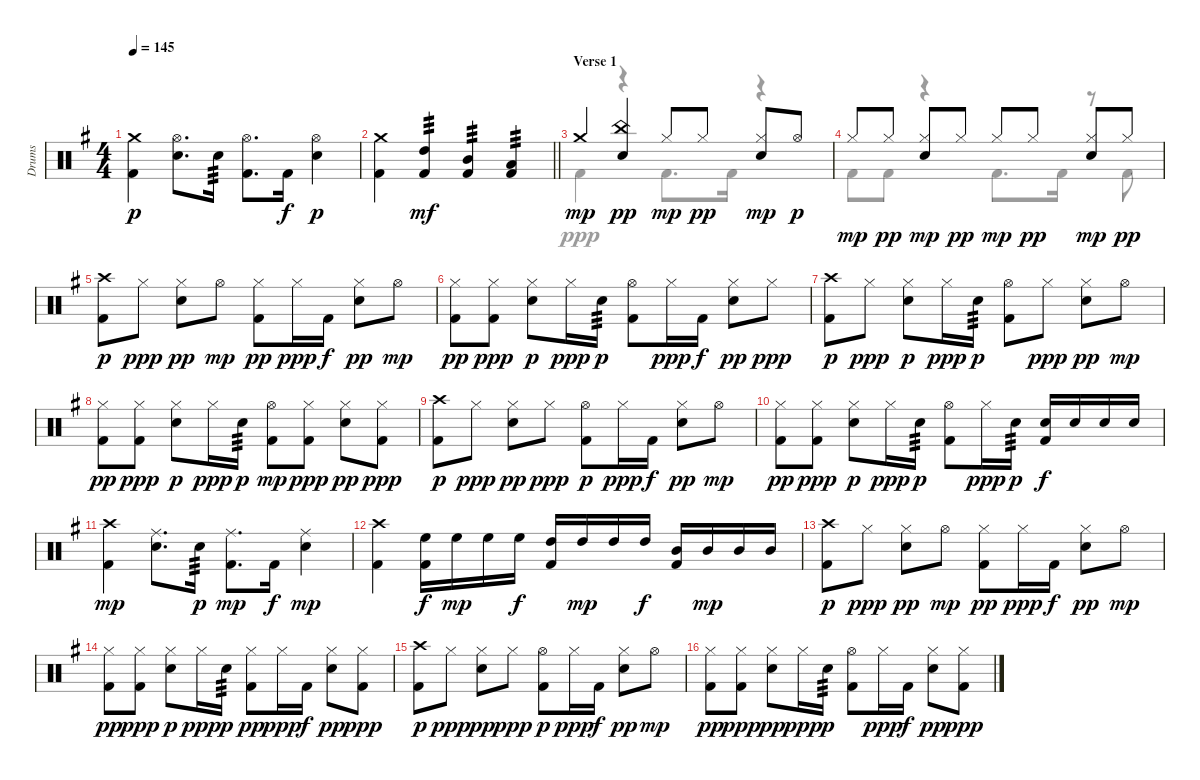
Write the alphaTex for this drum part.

\track ("Drums" "Drums") {instrument percussion}
\staff {score}
\articulation defaults
\voice
\ts (4 4)
\tempo 145
\clef neutral
\ks g
("Crash medium (hit)" "Kick (hit) 2").4{dy p} ("Hi-Hat (open)" "Electric Snare (hit)").8{d} "Electric Snare (hit)".16{tp 3} ("Hi-Hat (open)" "Kick (hit) 2").8{d} "Kick (hit) 2".16{dy f} ("Hi-Hat (open)" "Electric Snare (hit)").4{dy p} |
\barLineRight lightlight
("Crash medium (hit)" "Kick (hit) 2").4 ("High Tom (hit)" "Kick (hit) 2").4{tp 3 dy mf} ("Mid Tom (hit)" "Kick (hit) 2").4{tp 3} ("Low Tom (hit)" "Kick (hit) 2").4{tp 3} |
\section ("" "Verse 1")
"Crash medium (hit)".4{dy mp} ("China (hit)" "Electric Snare (hit)").4{dy pp} "Hi-Hat (closed)".8{dy mp} "Hi-Hat (closed)".8{dy pp} ("Hi-Hat (closed)" "Electric Snare (hit)").8{dy mp} "Hi-Hat (open)".8{dy p} |
"Hi-Hat (closed)".8{dy mp} "Hi-Hat (closed)".8{dy pp} ("Hi-Hat (closed)" "Electric Snare (hit)").8{dy mp} "Hi-Hat (closed)".8{dy pp} "Hi-Hat (closed)".8{dy mp} "Hi-Hat (closed)".8{dy pp} ("Hi-Hat (closed)" "Electric Snare (hit)").8{dy mp} "Hi-Hat (closed)".8{dy pp} |
("Crash high (hit)" "Kick (hit) 2").8{dy p} "Hi-Hat (closed)".8{dy ppp} ("Hi-Hat (closed)" "Electric Snare (hit)").8{dy pp} "Hi-Hat (open)".8{dy mp} ("Hi-Hat (closed)" "Kick (hit) 2").8{dy pp} "Hi-Hat (closed)".16{dy ppp} "Kick (hit) 2".16{dy f} ("Hi-Hat (closed)" "Electric Snare (hit)").8{dy pp} "Hi-Hat (open)".8{dy mp} |
("Hi-Hat (closed)" "Kick (hit) 2").8{dy pp} ("Hi-Hat (closed)" "Kick (hit) 2").8{dy ppp} ("Hi-Hat (closed)" "Electric Snare (hit)").8{dy p} "Hi-Hat (closed)".16{dy ppp} "Electric Snare (hit)".16{tp 3 dy p} ("Hi-Hat (open)" "Kick (hit) 2").8 "Hi-Hat (closed)".16{dy ppp} "Kick (hit) 2".16{dy f} ("Hi-Hat (closed)" "Electric Snare (hit)").8{dy pp} "Hi-Hat (closed)".8{dy ppp} |
("Crash high (hit)" "Kick (hit) 2").8{dy p} "Hi-Hat (closed)".8{dy ppp} ("Hi-Hat (closed)" "Electric Snare (hit)").8{dy p} "Hi-Hat (closed)".16{dy ppp} "Electric Snare (hit)".16{tp 3 dy p} ("Hi-Hat (open)" "Kick (hit) 2").8 "Hi-Hat (closed)".8{dy ppp} ("Hi-Hat (closed)" "Electric Snare (hit)").8{dy pp} "Hi-Hat (open)".8{dy mp} |
("Hi-Hat (closed)" "Kick (hit) 2").8{dy pp} ("Hi-Hat (closed)" "Kick (hit) 2").8{dy ppp} ("Hi-Hat (closed)" "Electric Snare (hit)").8{dy p} "Hi-Hat (closed)".16{dy ppp} "Electric Snare (hit)".16{tp 3 dy p} ("Hi-Hat (open)" "Kick (hit) 2").8{dy mp} ("Hi-Hat (closed)" "Kick (hit) 2").8{dy ppp} ("Hi-Hat (closed)" "Electric Snare (hit)").8{dy pp} ("Hi-Hat (closed)" "Kick (hit) 2").8{dy ppp} |
("Crash high (hit)" "Kick (hit) 2").8{dy p} "Hi-Hat (closed)".8{dy ppp} ("Hi-Hat (closed)" "Electric Snare (hit)").8{dy pp} "Hi-Hat (closed)".8{dy ppp} ("Hi-Hat (open)" "Kick (hit) 2").8{dy p} "Hi-Hat (closed)".16{dy ppp} "Kick (hit) 2".16{dy f} ("Hi-Hat (closed)" "Electric Snare (hit)").8{dy pp} "Hi-Hat (open)".8{dy mp} |
("Hi-Hat (closed)" "Kick (hit) 2").8{dy pp} ("Hi-Hat (closed)" "Kick (hit) 2").8{dy ppp} ("Hi-Hat (closed)" "Electric Snare (hit)").8{dy p} "Hi-Hat (closed)".16{dy ppp} "Electric Snare (hit)".16{tp 3 dy p} ("Hi-Hat (open)" "Kick (hit) 2").8 "Hi-Hat (closed)".16{dy ppp} "Electric Snare (hit)".16{tp 3 dy p} ("Electric Snare (hit)" "Kick (hit) 2").16{dy f} "Electric Snare (hit)".16 "Electric Snare (hit)".16 "Electric Snare (hit)".16 |
("Kick (hit) 2" "Crash high (hit)").4{dy mp} ("Electric Snare (hit)" "Ride (middle)").8{d} "Electric Snare (hit)".16{tp 3 dy p} ("Kick (hit) 2" "Ride (middle)").8{d dy mp} "Kick (hit) 2".16{dy f} ("Electric Snare (hit)" "Ride (middle)").4{dy mp} |
("Kick (hit) 2" "Crash high (hit)").4 ("High Floor Tom (hit)" "Kick (hit) 2").16{dy f} "High Floor Tom (hit)".16{dy mp} "High Floor Tom (hit)".16 "High Floor Tom (hit)".16{dy f} ("High Tom (hit)" "Kick (hit) 2").16 "High Tom (hit)".16{dy mp} "High Tom (hit)".16 "High Tom (hit)".16{dy f} ("Mid Tom (hit)" "Kick (hit) 2").16 "Mid Tom (hit)".16{dy mp} "Mid Tom (hit)".16 "Mid Tom (hit)".16 |
("Crash high (hit)" "Kick (hit) 2").8{dy p} "Hi-Hat (closed)".8{dy ppp} ("Hi-Hat (closed)" "Electric Snare (hit)").8{dy pp} "Hi-Hat (open)".8{dy mp} ("Hi-Hat (closed)" "Kick (hit) 2").8{dy pp} "Hi-Hat (closed)".16{dy ppp} "Kick (hit) 2".16{dy f} ("Hi-Hat (closed)" "Electric Snare (hit)").8{dy pp} "Hi-Hat (open)".8{dy mp} |
("Hi-Hat (closed)" "Kick (hit) 2").8{dy pp} ("Hi-Hat (closed)" "Kick (hit) 2").8{dy ppp} ("Hi-Hat (closed)" "Electric Snare (hit)").8{dy p} "Hi-Hat (closed)".16{dy ppp} "Electric Snare (hit)".16{tp 3 dy p} ("Hi-Hat (closed)" "Kick (hit) 2").8{dy pp} "Hi-Hat (closed)".16{dy ppp} "Kick (hit) 2".16{dy f} ("Hi-Hat (closed)" "Electric Snare (hit)").8{dy pp} ("Hi-Hat (closed)" "Kick (hit) 2").8{dy ppp} |
("Crash high (hit)" "Kick (hit) 2").8{dy p} "Hi-Hat (closed)".8{dy ppp} ("Hi-Hat (closed)" "Electric Snare (hit)").8{dy pp} "Hi-Hat (closed)".8{dy ppp} ("Hi-Hat (open)" "Kick (hit) 2").8{dy p} "Hi-Hat (closed)".16{dy ppp} "Kick (hit) 2".16{dy f} ("Hi-Hat (closed)" "Electric Snare (hit)").8{dy pp} "Hi-Hat (open)".8{dy mp} |
("Hi-Hat (closed)" "Kick (hit) 2").8{dy pp} ("Hi-Hat (closed)" "Kick (hit) 2").8{dy ppp} ("Hi-Hat (closed)" "Electric Snare (hit)").8{dy pp} "Hi-Hat (closed)".16{dy ppp} "Electric Snare (hit)".16{tp 3 dy p} ("Hi-Hat (open)" "Kick (hit) 2").8 "Hi-Hat (closed)".16{dy ppp} "Kick (hit) 2".16{dy f} ("Hi-Hat (closed)" "Electric Snare (hit)").8{dy pp} ("Hi-Hat (closed)" "Kick (hit) 2").8{dy ppp}
\voice
\clef neutral
\ottava regular
\simile none
\ks g
|
\barLineRight lightlight
|
"Kick (hit) 2".4 r.4 "Kick (hit) 2".8{d} "Kick (hit) 2".16 r.4 |
"Kick (hit) 2".8 "Kick (hit) 2".8 r.4 "Kick (hit) 2".8{d} "Kick (hit) 2".16 r.8 "Kick (hit) 2".8 |
|
|
|
|
|
|
|
|
|
|
|
